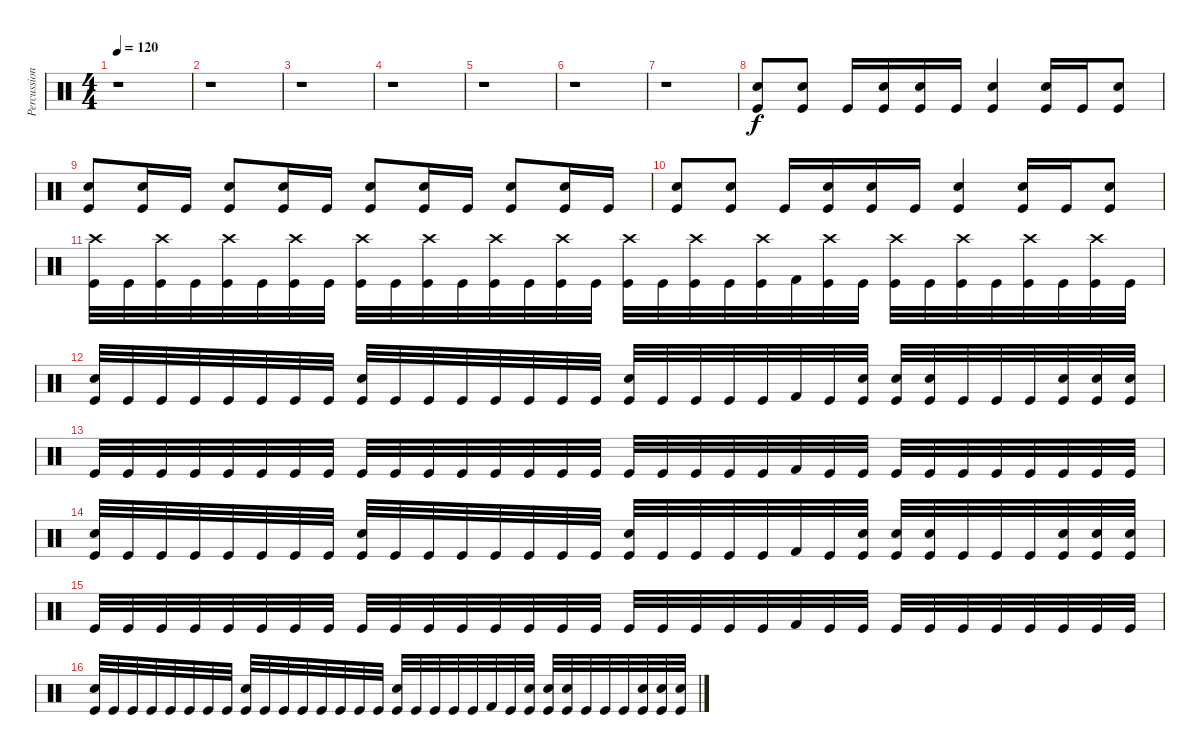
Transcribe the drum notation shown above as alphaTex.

\track ("Percussion" "Percussion") {instrument percussion}
\staff {score}
\articulation defaults
\ts (4 4)
\tempo 120
\clef neutral
\ks c
r.1{dy f} |
r.1 |
r.1 |
r.1 |
r.1 |
r.1 |
r.1 |
("Kick (hit)" "Snare (hit) 2").8 ("Kick (hit)" "Snare (hit) 2").8 "Kick (hit)".16 ("Kick (hit)" "Snare (hit) 2").16 ("Kick (hit)" "Snare (hit) 2").16 "Kick (hit)".16 ("Kick (hit)" "Snare (hit) 2").4 ("Kick (hit)" "Snare (hit) 2").16 "Kick (hit)".16 ("Kick (hit)" "Snare (hit) 2").8 |
("Kick (hit)" "Snare (hit) 2").8 ("Kick (hit)" "Snare (hit) 2").16 "Kick (hit)".16 ("Kick (hit)" "Snare (hit) 2").8 ("Kick (hit)" "Snare (hit) 2").16 "Kick (hit)".16 ("Kick (hit)" "Snare (hit) 2").8 ("Kick (hit)" "Snare (hit) 2").16 "Kick (hit)".16 ("Kick (hit)" "Snare (hit) 2").8 ("Kick (hit)" "Snare (hit) 2").16 "Kick (hit)".16 |
("Kick (hit)" "Snare (hit) 2").8 ("Kick (hit)" "Snare (hit) 2").8 "Kick (hit)".16 ("Kick (hit)" "Snare (hit) 2").16 ("Kick (hit)" "Snare (hit) 2").16 "Kick (hit)".16 ("Kick (hit)" "Snare (hit) 2").4 ("Kick (hit)" "Snare (hit) 2").16 "Kick (hit)".16 ("Kick (hit)" "Snare (hit) 2").8 |
("Kick (hit)" "Crash high (hit)").32 "Kick (hit)".32 ("Kick (hit)" "Crash high (hit)").32 "Kick (hit)".32 ("Kick (hit)" "Crash high (hit)").32 "Kick (hit)".32 ("Kick (hit)" "Crash high (hit)").32 "Kick (hit)".32 ("Kick (hit)" "Crash high (hit)").32 "Kick (hit)".32 ("Kick (hit)" "Crash high (hit)").32 "Kick (hit)".32 ("Kick (hit)" "Crash high (hit)").32 "Kick (hit)".32 ("Kick (hit)" "Crash high (hit)").32 "Kick (hit)".32 ("Kick (hit)" "Crash high (hit)").32 "Kick (hit)".32 ("Kick (hit)" "Crash high (hit)").32 "Kick (hit)".32 ("Kick (hit)" "Crash high (hit)").32 "Kick (hit) 2".32 ("Kick (hit)" "Crash high (hit)").32 "Kick (hit)".32 ("Kick (hit)" "Crash high (hit)").32 "Kick (hit)".32 ("Kick (hit)" "Crash high (hit)").32 "Kick (hit)".32 ("Kick (hit)" "Crash high (hit)").32 "Kick (hit)".32 ("Kick (hit)" "Crash high (hit)").32 "Kick (hit)".32 |
("Kick (hit)" "Snare (hit) 2").32 "Kick (hit)".32 "Kick (hit)".32 "Kick (hit)".32 "Kick (hit)".32 "Kick (hit)".32 "Kick (hit)".32 "Kick (hit)".32 ("Kick (hit)" "Snare (hit) 2").32 "Kick (hit)".32 "Kick (hit)".32 "Kick (hit)".32 "Kick (hit)".32 "Kick (hit)".32 "Kick (hit)".32 "Kick (hit)".32 ("Kick (hit)" "Snare (hit) 2").32 "Kick (hit)".32 "Kick (hit)".32 "Kick (hit)".32 "Kick (hit)".32 "Kick (hit) 2".32 "Kick (hit)".32 ("Kick (hit)" "Snare (hit) 2").32 ("Kick (hit)" "Snare (hit) 2").32 ("Kick (hit)" "Snare (hit) 2").32 "Kick (hit)".32 "Kick (hit)".32 "Kick (hit)".32 ("Kick (hit)" "Snare (hit) 2").32 ("Kick (hit)" "Snare (hit) 2").32 ("Kick (hit)" "Snare (hit) 2").32 |
"Kick (hit)".32 "Kick (hit)".32 "Kick (hit)".32 "Kick (hit)".32 "Kick (hit)".32 "Kick (hit)".32 "Kick (hit)".32 "Kick (hit)".32 "Kick (hit)".32 "Kick (hit)".32 "Kick (hit)".32 "Kick (hit)".32 "Kick (hit)".32 "Kick (hit)".32 "Kick (hit)".32 "Kick (hit)".32 "Kick (hit)".32 "Kick (hit)".32 "Kick (hit)".32 "Kick (hit)".32 "Kick (hit)".32 "Kick (hit) 2".32 "Kick (hit)".32 "Kick (hit)".32 "Kick (hit)".32 "Kick (hit)".32 "Kick (hit)".32 "Kick (hit)".32 "Kick (hit)".32 "Kick (hit)".32 "Kick (hit)".32 "Kick (hit)".32 |
("Kick (hit)" "Snare (hit) 2").32 "Kick (hit)".32 "Kick (hit)".32 "Kick (hit)".32 "Kick (hit)".32 "Kick (hit)".32 "Kick (hit)".32 "Kick (hit)".32 ("Kick (hit)" "Snare (hit) 2").32 "Kick (hit)".32 "Kick (hit)".32 "Kick (hit)".32 "Kick (hit)".32 "Kick (hit)".32 "Kick (hit)".32 "Kick (hit)".32 ("Kick (hit)" "Snare (hit) 2").32 "Kick (hit)".32 "Kick (hit)".32 "Kick (hit)".32 "Kick (hit)".32 "Kick (hit) 2".32 "Kick (hit)".32 ("Kick (hit)" "Snare (hit) 2").32 ("Kick (hit)" "Snare (hit) 2").32 ("Kick (hit)" "Snare (hit) 2").32 "Kick (hit)".32 "Kick (hit)".32 "Kick (hit)".32 ("Kick (hit)" "Snare (hit) 2").32 ("Kick (hit)" "Snare (hit) 2").32 ("Kick (hit)" "Snare (hit) 2").32 |
"Kick (hit)".32 "Kick (hit)".32 "Kick (hit)".32 "Kick (hit)".32 "Kick (hit)".32 "Kick (hit)".32 "Kick (hit)".32 "Kick (hit)".32 "Kick (hit)".32 "Kick (hit)".32 "Kick (hit)".32 "Kick (hit)".32 "Kick (hit)".32 "Kick (hit)".32 "Kick (hit)".32 "Kick (hit)".32 "Kick (hit)".32 "Kick (hit)".32 "Kick (hit)".32 "Kick (hit)".32 "Kick (hit)".32 "Kick (hit) 2".32 "Kick (hit)".32 "Kick (hit)".32 "Kick (hit)".32 "Kick (hit)".32 "Kick (hit)".32 "Kick (hit)".32 "Kick (hit)".32 "Kick (hit)".32 "Kick (hit)".32 "Kick (hit)".32 |
("Kick (hit)" "Snare (hit) 2").32 "Kick (hit)".32 "Kick (hit)".32 "Kick (hit)".32 "Kick (hit)".32 "Kick (hit)".32 "Kick (hit)".32 "Kick (hit)".32 ("Kick (hit)" "Snare (hit) 2").32 "Kick (hit)".32 "Kick (hit)".32 "Kick (hit)".32 "Kick (hit)".32 "Kick (hit)".32 "Kick (hit)".32 "Kick (hit)".32 ("Kick (hit)" "Snare (hit) 2").32 "Kick (hit)".32 "Kick (hit)".32 "Kick (hit)".32 "Kick (hit)".32 "Kick (hit) 2".32 "Kick (hit)".32 ("Kick (hit)" "Snare (hit) 2").32 ("Kick (hit)" "Snare (hit) 2").32 ("Kick (hit)" "Snare (hit) 2").32 "Kick (hit)".32 "Kick (hit)".32 "Kick (hit)".32 ("Kick (hit)" "Snare (hit) 2").32 ("Kick (hit)" "Snare (hit) 2").32 ("Kick (hit)" "Snare (hit) 2").32
